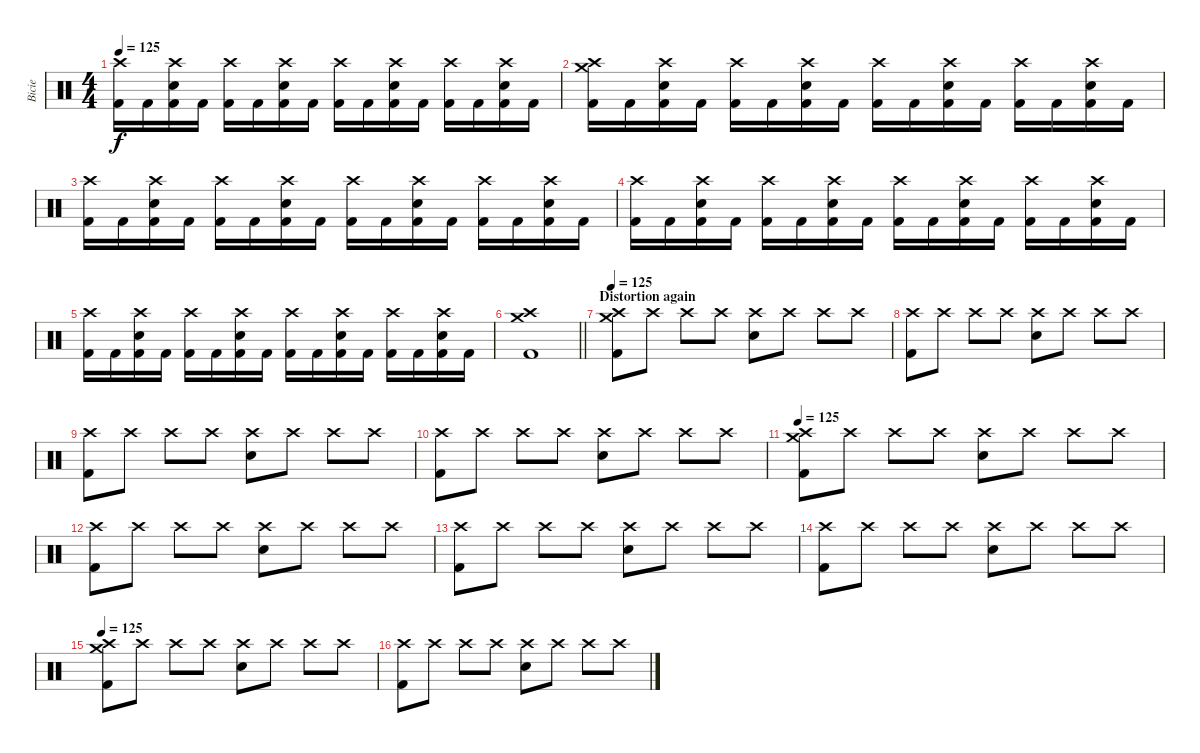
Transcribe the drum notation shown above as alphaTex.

\track ("Bicie" "Bicie") {instrument percussion}
\staff {score}
\articulation defaults
\ts (4 4)
\tempo 125
\clef neutral
\ks c
("Crash high (hit)" "Kick (hit) 2").16{dy f} "Kick (hit) 2".16 ("Crash high (hit)" "Snare (hit) 2" "Kick (hit) 2").16 "Kick (hit) 2".16 ("Crash high (hit)" "Kick (hit) 2").16 "Kick (hit) 2".16 ("Crash high (hit)" "Snare (hit) 2" "Kick (hit) 2").16 "Kick (hit) 2".16 ("Crash high (hit)" "Kick (hit) 2").16 "Kick (hit) 2".16 ("Crash high (hit)" "Snare (hit) 2" "Kick (hit) 2").16 "Kick (hit) 2".16 ("Crash high (hit)" "Kick (hit) 2").16 "Kick (hit) 2".16 ("Crash high (hit)" "Snare (hit) 2" "Kick (hit) 2").16 "Kick (hit) 2".16 |
("Crash high (hit)" "Crash medium (hit)" "Kick (hit) 2").16 "Kick (hit) 2".16 ("Crash high (hit)" "Snare (hit) 2" "Kick (hit) 2").16 "Kick (hit) 2".16 ("Crash high (hit)" "Kick (hit) 2").16 "Kick (hit) 2".16 ("Crash high (hit)" "Snare (hit) 2" "Kick (hit) 2").16 "Kick (hit) 2".16 ("Crash high (hit)" "Kick (hit) 2").16 "Kick (hit) 2".16 ("Crash high (hit)" "Snare (hit) 2" "Kick (hit) 2").16 "Kick (hit) 2".16 ("Crash high (hit)" "Kick (hit) 2").16 "Kick (hit) 2".16 ("Crash high (hit)" "Snare (hit) 2" "Kick (hit) 2").16 "Kick (hit) 2".16 |
("Crash high (hit)" "Kick (hit) 2").16 "Kick (hit) 2".16 ("Crash high (hit)" "Snare (hit) 2" "Kick (hit) 2").16 "Kick (hit) 2".16 ("Crash high (hit)" "Kick (hit) 2").16 "Kick (hit) 2".16 ("Crash high (hit)" "Snare (hit) 2" "Kick (hit) 2").16 "Kick (hit) 2".16 ("Crash high (hit)" "Kick (hit) 2").16 "Kick (hit) 2".16 ("Crash high (hit)" "Snare (hit) 2" "Kick (hit) 2").16 "Kick (hit) 2".16 ("Crash high (hit)" "Kick (hit) 2").16 "Kick (hit) 2".16 ("Crash high (hit)" "Snare (hit) 2" "Kick (hit) 2").16 "Kick (hit) 2".16 |
("Crash high (hit)" "Kick (hit) 2").16 "Kick (hit) 2".16 ("Crash high (hit)" "Snare (hit) 2" "Kick (hit) 2").16 "Kick (hit) 2".16 ("Crash high (hit)" "Kick (hit) 2").16 "Kick (hit) 2".16 ("Crash high (hit)" "Snare (hit) 2" "Kick (hit) 2").16 "Kick (hit) 2".16 ("Crash high (hit)" "Kick (hit) 2").16 "Kick (hit) 2".16 ("Crash high (hit)" "Snare (hit) 2" "Kick (hit) 2").16 "Kick (hit) 2".16 ("Crash high (hit)" "Kick (hit) 2").16 "Kick (hit) 2".16 ("Crash high (hit)" "Snare (hit) 2" "Kick (hit) 2").16 "Kick (hit) 2".16 |
("Crash high (hit)" "Kick (hit) 2").16 "Kick (hit) 2".16 ("Crash high (hit)" "Snare (hit) 2" "Kick (hit) 2").16 "Kick (hit) 2".16 ("Crash high (hit)" "Kick (hit) 2").16 "Kick (hit) 2".16 ("Crash high (hit)" "Snare (hit) 2" "Kick (hit) 2").16 "Kick (hit) 2".16 ("Crash high (hit)" "Kick (hit) 2").16 "Kick (hit) 2".16 ("Crash high (hit)" "Snare (hit) 2" "Kick (hit) 2").16 "Kick (hit) 2".16 ("Crash high (hit)" "Kick (hit) 2").16 "Kick (hit) 2".16 ("Crash high (hit)" "Snare (hit) 2" "Kick (hit) 2").16 "Kick (hit) 2".16 |
\barLineRight lightlight
("Crash medium (hit)" "Crash high (hit)" "Kick (hit) 2").1 |
\section ("" "Distortion again")
\tempo 125
("Crash medium (hit)" "Crash high (hit)" "Kick (hit) 2").8 "Crash high (hit)".8 "Crash high (hit)".8 "Crash high (hit)".8 ("Crash high (hit)" "Snare (hit) 2").8 "Crash high (hit)".8 "Crash high (hit)".8 "Crash high (hit)".8 |
("Crash high (hit)" "Kick (hit) 2").8 "Crash high (hit)".8 "Crash high (hit)".8 "Crash high (hit)".8 ("Crash high (hit)" "Snare (hit) 2").8 "Crash high (hit)".8 "Crash high (hit)".8 "Crash high (hit)".8 |
("Crash high (hit)" "Kick (hit) 2").8 "Crash high (hit)".8 "Crash high (hit)".8 "Crash high (hit)".8 ("Crash high (hit)" "Snare (hit) 2").8 "Crash high (hit)".8 "Crash high (hit)".8 "Crash high (hit)".8 |
("Crash high (hit)" "Kick (hit) 2").8 "Crash high (hit)".8 "Crash high (hit)".8 "Crash high (hit)".8 ("Crash high (hit)" "Snare (hit) 2").8 "Crash high (hit)".8 "Crash high (hit)".8 "Crash high (hit)".8 |
\tempo 125
("Crash medium (hit)" "Crash high (hit)" "Kick (hit) 2").8 "Crash high (hit)".8 "Crash high (hit)".8 "Crash high (hit)".8 ("Crash high (hit)" "Snare (hit) 2").8 "Crash high (hit)".8 "Crash high (hit)".8 "Crash high (hit)".8 |
("Crash high (hit)" "Kick (hit) 2").8 "Crash high (hit)".8 "Crash high (hit)".8 "Crash high (hit)".8 ("Crash high (hit)" "Snare (hit) 2").8 "Crash high (hit)".8 "Crash high (hit)".8 "Crash high (hit)".8 |
("Crash high (hit)" "Kick (hit) 2").8 "Crash high (hit)".8 "Crash high (hit)".8 "Crash high (hit)".8 ("Crash high (hit)" "Snare (hit) 2").8 "Crash high (hit)".8 "Crash high (hit)".8 "Crash high (hit)".8 |
("Crash high (hit)" "Kick (hit) 2").8 "Crash high (hit)".8 "Crash high (hit)".8 "Crash high (hit)".8 ("Crash high (hit)" "Snare (hit) 2").8 "Crash high (hit)".8 "Crash high (hit)".8 "Crash high (hit)".8 |
\tempo 125
("Crash medium (hit)" "Crash high (hit)" "Kick (hit) 2").8 "Crash high (hit)".8 "Crash high (hit)".8 "Crash high (hit)".8 ("Crash high (hit)" "Snare (hit) 2").8 "Crash high (hit)".8 "Crash high (hit)".8 "Crash high (hit)".8 |
("Crash high (hit)" "Kick (hit) 2").8 "Crash high (hit)".8 "Crash high (hit)".8 "Crash high (hit)".8 ("Crash high (hit)" "Snare (hit) 2").8 "Crash high (hit)".8 "Crash high (hit)".8 "Crash high (hit)".8
